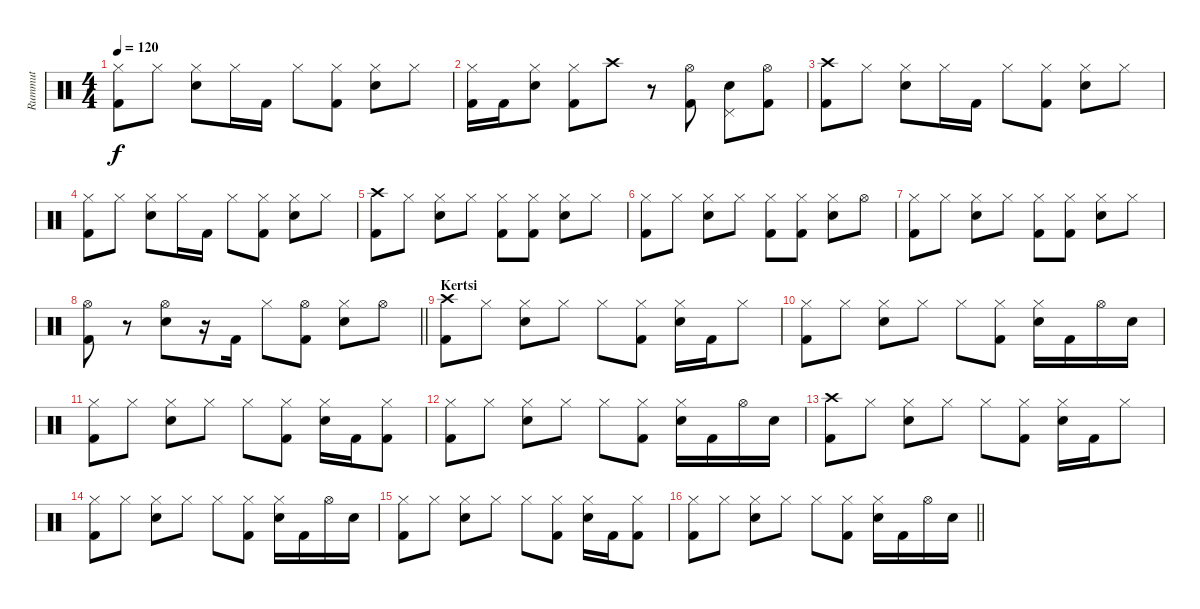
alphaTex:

\track ("Rummut" "Rummut") {instrument percussion}
\staff {score}
\articulation defaults
\ts (4 4)
\tempo 120
\clef neutral
\ks c
("Hi-Hat (closed)" "Kick (hit) 2").8{dy f} "Hi-Hat (closed)".8 ("Hi-Hat (closed)" "Snare (hit) 2").8 "Hi-Hat (closed)".16 "Kick (hit) 2".16 "Hi-Hat (closed)".8 ("Hi-Hat (closed)" "Kick (hit) 2").8 ("Hi-Hat (closed)" "Snare (hit) 2").8 "Hi-Hat (closed)".8 |
("Hi-Hat (closed)" "Kick (hit) 2").16 "Kick (hit) 2".16 ("Hi-Hat (closed)" "Snare (hit) 2").8 ("Hi-Hat (closed)" "Kick (hit) 2").8 "Crash high (hit)".8 r.8 ("Hi-Hat (open)" "Kick (hit) 2").8 ("Pedal Hi-Hat (hit)" "Snare (hit) 2").8 ("Hi-Hat (open)" "Kick (hit) 2").8 |
("Crash high (hit)" "Kick (hit) 2").8 "Hi-Hat (closed)".8 ("Hi-Hat (closed)" "Snare (hit) 2").8 "Hi-Hat (closed)".16 "Kick (hit) 2".16 "Hi-Hat (closed)".8 ("Hi-Hat (closed)" "Kick (hit) 2").8 ("Hi-Hat (closed)" "Snare (hit) 2").8 "Hi-Hat (closed)".8 |
("Hi-Hat (closed)" "Kick (hit) 2").8 "Hi-Hat (closed)".8 ("Hi-Hat (closed)" "Snare (hit) 2").8 "Hi-Hat (closed)".16 "Kick (hit) 2".16 "Hi-Hat (closed)".8 ("Hi-Hat (closed)" "Kick (hit) 2").8 ("Hi-Hat (closed)" "Snare (hit) 2").8 "Hi-Hat (closed)".8 |
("Crash high (hit)" "Kick (hit) 2").8 "Hi-Hat (closed)".8 ("Hi-Hat (closed)" "Snare (hit) 2").8 "Hi-Hat (closed)".8 ("Hi-Hat (closed)" "Kick (hit) 2").8 ("Hi-Hat (closed)" "Kick (hit) 2").8 ("Hi-Hat (closed)" "Snare (hit) 2").8 "Hi-Hat (closed)".8 |
("Hi-Hat (closed)" "Kick (hit) 2").8 "Hi-Hat (closed)".8 ("Hi-Hat (closed)" "Snare (hit) 2").8 "Hi-Hat (closed)".8 ("Hi-Hat (closed)" "Kick (hit) 2").8 ("Hi-Hat (closed)" "Kick (hit) 2").8 ("Hi-Hat (closed)" "Snare (hit) 2").8 "Hi-Hat (open)".8 |
("Hi-Hat (closed)" "Kick (hit) 2").8 "Hi-Hat (closed)".8 ("Hi-Hat (closed)" "Snare (hit) 2").8 "Hi-Hat (closed)".8 ("Hi-Hat (closed)" "Kick (hit) 2").8 ("Hi-Hat (closed)" "Kick (hit) 2").8 ("Hi-Hat (closed)" "Snare (hit) 2").8 "Hi-Hat (closed)".8 |
\barLineRight lightlight
("Hi-Hat (open)" "Kick (hit) 2").8 r.8 ("Hi-Hat (open)" "Snare (hit) 2").8 r.16 "Kick (hit) 2".16 "Hi-Hat (closed)".8 ("Hi-Hat (open)" "Kick (hit) 2").8 ("Hi-Hat (closed)" "Snare (hit) 2").8 "Hi-Hat (open)".8 |
\section ("" "Kertsi")
("Crash high (hit)" "Kick (hit) 2").8 "Hi-Hat (closed)".8 ("Hi-Hat (closed)" "Snare (hit) 2").8 "Hi-Hat (closed)".8 "Hi-Hat (closed)".8 ("Hi-Hat (closed)" "Kick (hit) 2").8 ("Hi-Hat (closed)" "Snare (hit) 2").16 "Kick (hit) 2".16 "Hi-Hat (closed)".8 |
("Hi-Hat (closed)" "Kick (hit) 2").8 "Hi-Hat (closed)".8 ("Hi-Hat (closed)" "Snare (hit) 2").8 "Hi-Hat (closed)".8 "Hi-Hat (closed)".8 ("Hi-Hat (closed)" "Kick (hit) 2").8 ("Hi-Hat (closed)" "Snare (hit) 2").16 "Kick (hit) 2".16 "Hi-Hat (open)".16 "Snare (hit) 2".16 |
("Hi-Hat (closed)" "Kick (hit) 2").8 "Hi-Hat (closed)".8 ("Hi-Hat (closed)" "Snare (hit) 2").8 "Hi-Hat (closed)".8 "Hi-Hat (closed)".8 ("Hi-Hat (closed)" "Kick (hit) 2").8 ("Hi-Hat (closed)" "Snare (hit) 2").16 "Kick (hit) 2".16 ("Hi-Hat (closed)" "Kick (hit) 2").8 |
("Hi-Hat (closed)" "Kick (hit) 2").8 "Hi-Hat (closed)".8 ("Hi-Hat (closed)" "Snare (hit) 2").8 "Hi-Hat (closed)".8 "Hi-Hat (closed)".8 ("Hi-Hat (closed)" "Kick (hit) 2").8 ("Hi-Hat (closed)" "Snare (hit) 2").16 "Kick (hit) 2".16 "Hi-Hat (open)".16 "Snare (hit) 2".16 |
("Crash high (hit)" "Kick (hit) 2").8 "Hi-Hat (closed)".8 ("Hi-Hat (closed)" "Snare (hit) 2").8 "Hi-Hat (closed)".8 "Hi-Hat (closed)".8 ("Hi-Hat (closed)" "Kick (hit) 2").8 ("Hi-Hat (closed)" "Snare (hit) 2").16 "Kick (hit) 2".16 "Hi-Hat (closed)".8 |
("Hi-Hat (closed)" "Kick (hit) 2").8 "Hi-Hat (closed)".8 ("Hi-Hat (closed)" "Snare (hit) 2").8 "Hi-Hat (closed)".8 "Hi-Hat (closed)".8 ("Hi-Hat (closed)" "Kick (hit) 2").8 ("Hi-Hat (closed)" "Snare (hit) 2").16 "Kick (hit) 2".16 "Hi-Hat (open)".16 "Snare (hit) 2".16 |
("Hi-Hat (closed)" "Kick (hit) 2").8 "Hi-Hat (closed)".8 ("Hi-Hat (closed)" "Snare (hit) 2").8 "Hi-Hat (closed)".8 "Hi-Hat (closed)".8 ("Hi-Hat (closed)" "Kick (hit) 2").8 ("Hi-Hat (closed)" "Snare (hit) 2").16 "Kick (hit) 2".16 ("Hi-Hat (closed)" "Kick (hit) 2").8 |
\barLineRight lightlight
("Hi-Hat (closed)" "Kick (hit) 2").8 "Hi-Hat (closed)".8 ("Hi-Hat (closed)" "Snare (hit) 2").8 "Hi-Hat (closed)".8 "Hi-Hat (closed)".8 ("Hi-Hat (closed)" "Kick (hit) 2").8 ("Hi-Hat (closed)" "Snare (hit) 2").16 "Kick (hit) 2".16 "Hi-Hat (open)".16 "Snare (hit) 2".16
